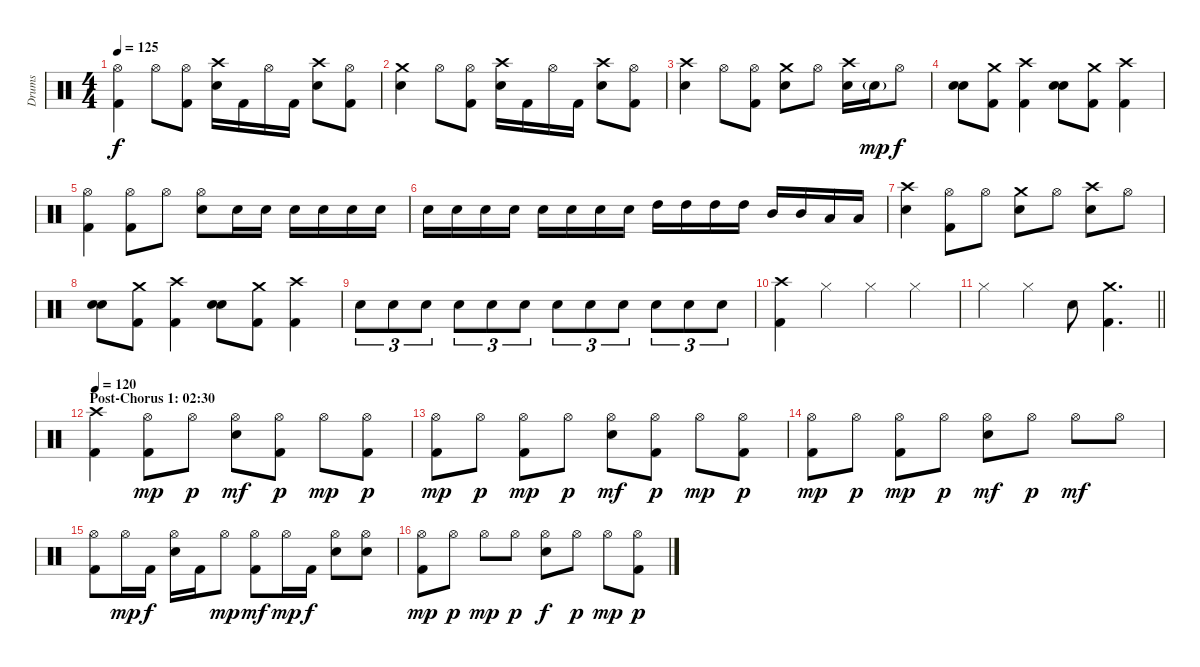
\track ("Drums" "Drums") {instrument percussion}
\staff {score}
\articulation defaults
\ts (4 4)
\tempo 125
\clef neutral
\ks c
("Hi-Hat (open)" "Kick (hit) 2").4{dy f} "Hi-Hat (open)".8 ("Hi-Hat (open)" "Kick (hit) 2").8 ("Crash high (hit)" "Electric Snare (hit)").16 "Kick (hit) 2".16 "Hi-Hat (open)".16 "Kick (hit) 2".16 ("Crash high (hit)" "Electric Snare (hit)").8 ("Hi-Hat (open)" "Kick (hit) 2").8 |
("Crash medium (hit)" "Electric Snare (hit)").4 "Hi-Hat (open)".8 ("Hi-Hat (open)" "Kick (hit) 2").8 ("Crash high (hit)" "Electric Snare (hit)").16 "Kick (hit) 2".16 "Hi-Hat (open)".16 "Kick (hit) 2".16 ("Crash high (hit)" "Electric Snare (hit)").8 ("Hi-Hat (open)" "Kick (hit) 2").8 |
("Crash high (hit)" "Electric Snare (hit)").4 "Hi-Hat (open)".8 ("Hi-Hat (open)" "Kick (hit) 2").8 ("Crash medium (hit)" "Electric Snare (hit)").8 "Hi-Hat (open)".8 ("Crash high (hit)" "Electric Snare (hit)").16 "Electric Snare (hit)"{g}.16{dy mp} "Hi-Hat (open)".8{dy f} |
("Electric Snare (hit)" "Electric Snare (hit)").8{bd 60} ("Crash medium (hit)" "Kick (hit) 2").8 ("Crash high (hit)" "Kick (hit) 2").4 ("Electric Snare (hit)" "Electric Snare (hit)").8{bd 60} ("Crash medium (hit)" "Kick (hit) 2").8 ("Crash high (hit)" "Kick (hit) 2").4 |
("Hi-Hat (open)" "Kick (hit) 2").4 ("Hi-Hat (open)" "Kick (hit) 2").8 "Hi-Hat (open)".8 ("Hi-Hat (open)" "Electric Snare (hit)").8 "Electric Snare (hit)".16 "Electric Snare (hit)".16 "Electric Snare (hit)".16 "Electric Snare (hit)".16 "Electric Snare (hit)".16 "Electric Snare (hit)".16 |
"Electric Snare (hit)".16 "Electric Snare (hit)".16 "Electric Snare (hit)".16 "Electric Snare (hit)".16 "Electric Snare (hit)".16 "Electric Snare (hit)".16 "Electric Snare (hit)".16 "Electric Snare (hit)".16 "High Tom (hit)".16 "High Tom (hit)".16 "High Tom (hit)".16 "High Tom (hit)".16 "Mid Tom (hit)".16 "Mid Tom (hit)".16 "Low Tom (hit)".16 "Low Tom (hit)".16 |
("Crash high (hit)" "Electric Snare (hit)").4 ("Hi-Hat (open)" "Kick (hit) 2").8 "Hi-Hat (open)".8 ("Crash medium (hit)" "Electric Snare (hit)").8 "Hi-Hat (open)".8 ("Crash high (hit)" "Electric Snare (hit)").8 "Hi-Hat (open)".8 |
("Electric Snare (hit)" "Electric Snare (hit)").8{bd 60} ("Crash medium (hit)" "Kick (hit) 2").8 ("Crash high (hit)" "Kick (hit) 2").4 ("Electric Snare (hit)" "Electric Snare (hit)").8{bd 60} ("Crash medium (hit)" "Kick (hit) 2").8 ("Crash high (hit)" "Kick (hit) 2").4 |
"Electric Snare (hit)".8{tu (3 2)} "Electric Snare (hit)".8{tu (3 2)} "Electric Snare (hit)".8{tu (3 2)} "Electric Snare (hit)".8{tu (3 2)} "Electric Snare (hit)".8{tu (3 2)} "Electric Snare (hit)".8{tu (3 2)} "Electric Snare (hit)".8{tu (3 2)} "Electric Snare (hit)".8{tu (3 2)} "Electric Snare (hit)".8{tu (3 2)} "Electric Snare (hit)".8{tu (3 2)} "Electric Snare (hit)".8{tu (3 2)} "Electric Snare (hit)".8{tu (3 2)} |
("Crash high (hit)" "Kick (hit) 2").4 "Hi-Hat (closed)".4 "Hi-Hat (closed)".4 "Hi-Hat (closed)".4 |
\barLineRight lightlight "Hi-Hat (closed)".4 "Hi-Hat (closed)".4 "Electric Snare (hit)".8
("Crash medium (hit)" "Kick (hit) 2").4{d} |
\section ("" "Post-Chorus 1: 02:30")
\tempo 120
("Crash high (hit)" "Kick (hit) 2").4 ("Hi-Hat (open)" "Kick (hit) 2").8{dy mp} "Hi-Hat (open)".8{dy p} ("Hi-Hat (open)" "Electric Snare (hit)").8{dy mf} ("Hi-Hat (open)" "Kick (hit) 2").8{dy p} "Hi-Hat (open)".8{dy mp} ("Hi-Hat (open)" "Kick (hit) 2").8{dy p} |
("Hi-Hat (open)" "Kick (hit) 2").8{dy mp} "Hi-Hat (open)".8{dy p} ("Hi-Hat (open)" "Kick (hit) 2").8{dy mp} "Hi-Hat (open)".8{dy p} ("Hi-Hat (open)" "Electric Snare (hit)").8{dy mf} ("Hi-Hat (open)" "Kick (hit) 2").8{dy p} "Hi-Hat (open)".8{dy mp} ("Hi-Hat (open)" "Kick (hit) 2").8{dy p} |
("Hi-Hat (open)" "Kick (hit) 2").8{dy mp} "Hi-Hat (open)".8{dy p} ("Hi-Hat (open)" "Kick (hit) 2").8{dy mp} "Hi-Hat (open)".8{dy p} ("Hi-Hat (open)" "Electric Snare (hit)").8{dy mf} "Hi-Hat (open)".8{dy p} "Hi-Hat (open)".8{dy mf} "Hi-Hat (open)".8 |
("Hi-Hat (open)" "Kick (hit) 2").8 "Hi-Hat (open)".16{dy mp} "Kick (hit) 2".16{dy f} ("Hi-Hat (open)" "Electric Snare (hit)").16 "Kick (hit) 2".16 "Hi-Hat (open)".8{dy mp} ("Hi-Hat (open)" "Kick (hit) 2").8{dy mf} "Hi-Hat (open)".16{dy mp} "Kick (hit) 2".16{dy f} ("Hi-Hat (open)" "Electric Snare (hit)").8 ("Hi-Hat (open)" "Electric Snare (hit)").8 |
("Hi-Hat (open)" "Kick (hit) 2").8{dy mp} "Hi-Hat (open)".8{dy p} "Hi-Hat (open)".8{dy mp} "Hi-Hat (open)".8{dy p} ("Hi-Hat (open)" "Electric Snare (hit)").8{dy f} "Hi-Hat (open)".8{dy p} "Hi-Hat (open)".8{dy mp} ("Hi-Hat (open)" "Kick (hit) 2").8{dy p}
